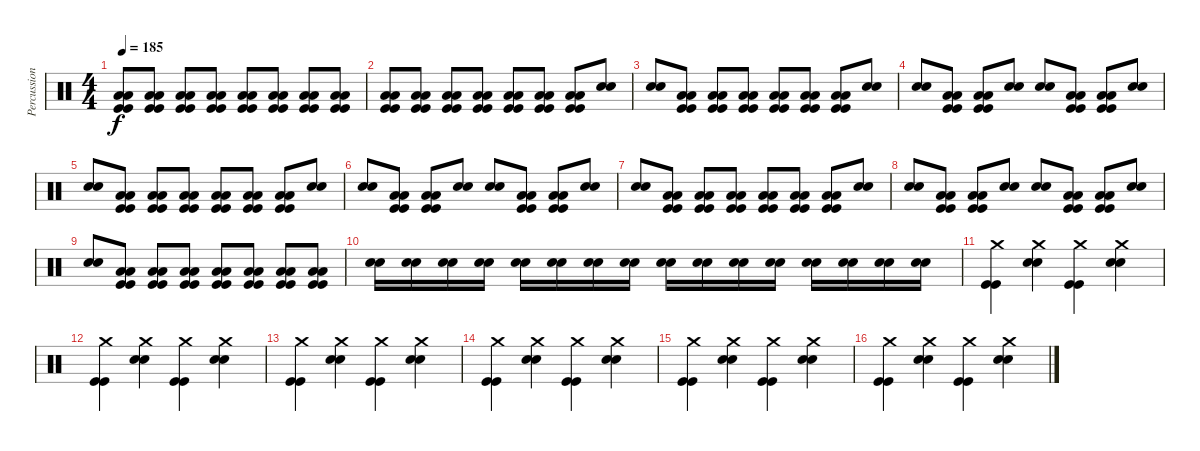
\track ("Percussion" "Percussion") {instrument percussion}
\staff {score}
\articulation defaults
\ts (4 4)
\tempo 185
\clef neutral
\ks c
("Kick (hit)" "Kick (hit)" "Low Floor Tom (hit)" "Low Floor Tom (hit)").8{dy f} ("Kick (hit)" "Kick (hit)" "Low Floor Tom (hit)" "Low Floor Tom (hit)").8 ("Kick (hit)" "Kick (hit)" "Low Floor Tom (hit)" "Low Floor Tom (hit)").8 ("Kick (hit)" "Kick (hit)" "Low Floor Tom (hit)" "Low Floor Tom (hit)").8 ("Kick (hit)" "Kick (hit)" "Low Floor Tom (hit)" "Low Floor Tom (hit)").8 ("Kick (hit)" "Kick (hit)" "Low Floor Tom (hit)" "Low Floor Tom (hit)").8 ("Kick (hit)" "Kick (hit)" "Low Floor Tom (hit)" "Low Floor Tom (hit)").8 ("Kick (hit)" "Kick (hit)" "Low Floor Tom (hit)" "Low Floor Tom (hit)").8 |
("Kick (hit)" "Kick (hit)" "Low Floor Tom (hit)" "Low Floor Tom (hit)").8 ("Kick (hit)" "Kick (hit)" "Low Floor Tom (hit)" "Low Floor Tom (hit)").8 ("Kick (hit)" "Kick (hit)" "Low Floor Tom (hit)" "Low Floor Tom (hit)").8 ("Kick (hit)" "Kick (hit)" "Low Floor Tom (hit)" "Low Floor Tom (hit)").8 ("Kick (hit)" "Kick (hit)" "Low Floor Tom (hit)" "Low Floor Tom (hit)").8 ("Kick (hit)" "Kick (hit)" "Low Floor Tom (hit)" "Low Floor Tom (hit)").8 ("Kick (hit)" "Kick (hit)" "Low Floor Tom (hit)" "Low Floor Tom (hit)").8 ("Snare (hit) 2" "Snare (hit) 2").8 |
("Snare (hit) 2" "Snare (hit) 2").8 ("Low Floor Tom (hit)" "Low Floor Tom (hit)" "Kick (hit)" "Kick (hit)").8 ("Low Floor Tom (hit)" "Low Floor Tom (hit)" "Kick (hit)" "Kick (hit)").8 ("Low Floor Tom (hit)" "Low Floor Tom (hit)" "Kick (hit)" "Kick (hit)").8 ("Low Floor Tom (hit)" "Low Floor Tom (hit)" "Kick (hit)" "Kick (hit)").8 ("Low Floor Tom (hit)" "Low Floor Tom (hit)" "Kick (hit)" "Kick (hit)").8 ("Low Floor Tom (hit)" "Low Floor Tom (hit)" "Kick (hit)" "Kick (hit)").8 ("Snare (hit) 2" "Snare (hit) 2").8 |
("Snare (hit) 2" "Snare (hit) 2").8 ("Low Floor Tom (hit)" "Low Floor Tom (hit)" "Kick (hit)" "Kick (hit)").8 ("Low Floor Tom (hit)" "Low Floor Tom (hit)" "Kick (hit)" "Kick (hit)").8 ("Snare (hit) 2" "Snare (hit) 2").8 ("Snare (hit) 2" "Snare (hit) 2").8 ("Low Floor Tom (hit)" "Low Floor Tom (hit)" "Kick (hit)" "Kick (hit)").8 ("Low Floor Tom (hit)" "Low Floor Tom (hit)" "Kick (hit)" "Kick (hit)").8 ("Snare (hit) 2" "Snare (hit) 2").8 |
("Snare (hit) 2" "Snare (hit) 2").8 ("Low Floor Tom (hit)" "Low Floor Tom (hit)" "Kick (hit)" "Kick (hit)").8 ("Low Floor Tom (hit)" "Low Floor Tom (hit)" "Kick (hit)" "Kick (hit)").8 ("Low Floor Tom (hit)" "Low Floor Tom (hit)" "Kick (hit)" "Kick (hit)").8 ("Low Floor Tom (hit)" "Low Floor Tom (hit)" "Kick (hit)" "Kick (hit)").8 ("Low Floor Tom (hit)" "Low Floor Tom (hit)" "Kick (hit)" "Kick (hit)").8 ("Low Floor Tom (hit)" "Low Floor Tom (hit)" "Kick (hit)" "Kick (hit)").8 ("Snare (hit) 2" "Snare (hit) 2").8 |
("Snare (hit) 2" "Snare (hit) 2").8 ("Low Floor Tom (hit)" "Low Floor Tom (hit)" "Kick (hit)" "Kick (hit)").8 ("Low Floor Tom (hit)" "Low Floor Tom (hit)" "Kick (hit)" "Kick (hit)").8 ("Snare (hit) 2" "Snare (hit) 2").8 ("Snare (hit) 2" "Snare (hit) 2").8 ("Low Floor Tom (hit)" "Low Floor Tom (hit)" "Kick (hit)" "Kick (hit)").8 ("Low Floor Tom (hit)" "Low Floor Tom (hit)" "Kick (hit)" "Kick (hit)").8 ("Snare (hit) 2" "Snare (hit) 2").8 |
("Snare (hit) 2" "Snare (hit) 2").8 ("Low Floor Tom (hit)" "Low Floor Tom (hit)" "Kick (hit)" "Kick (hit)").8 ("Low Floor Tom (hit)" "Low Floor Tom (hit)" "Kick (hit)" "Kick (hit)").8 ("Low Floor Tom (hit)" "Low Floor Tom (hit)" "Kick (hit)" "Kick (hit)").8 ("Low Floor Tom (hit)" "Low Floor Tom (hit)" "Kick (hit)" "Kick (hit)").8 ("Low Floor Tom (hit)" "Low Floor Tom (hit)" "Kick (hit)" "Kick (hit)").8 ("Low Floor Tom (hit)" "Low Floor Tom (hit)" "Kick (hit)" "Kick (hit)").8 ("Snare (hit) 2" "Snare (hit) 2").8 |
("Snare (hit) 2" "Snare (hit) 2").8 ("Low Floor Tom (hit)" "Low Floor Tom (hit)" "Kick (hit)" "Kick (hit)").8 ("Low Floor Tom (hit)" "Low Floor Tom (hit)" "Kick (hit)" "Kick (hit)").8 ("Snare (hit) 2" "Snare (hit) 2").8 ("Snare (hit) 2" "Snare (hit) 2").8 ("Low Floor Tom (hit)" "Low Floor Tom (hit)" "Kick (hit)" "Kick (hit)").8 ("Low Floor Tom (hit)" "Low Floor Tom (hit)" "Kick (hit)" "Kick (hit)").8 ("Snare (hit) 2" "Snare (hit) 2").8 |
("Snare (hit) 2" "Snare (hit) 2").8 ("Low Floor Tom (hit)" "Low Floor Tom (hit)" "Kick (hit)" "Kick (hit)").8 ("Low Floor Tom (hit)" "Low Floor Tom (hit)" "Kick (hit)" "Kick (hit)").8 ("Low Floor Tom (hit)" "Low Floor Tom (hit)" "Kick (hit)" "Kick (hit)").8 ("Low Floor Tom (hit)" "Low Floor Tom (hit)" "Kick (hit)" "Kick (hit)").8 ("Low Floor Tom (hit)" "Low Floor Tom (hit)" "Kick (hit)" "Kick (hit)").8 ("Low Floor Tom (hit)" "Low Floor Tom (hit)" "Kick (hit)" "Kick (hit)").8 ("Low Floor Tom (hit)" "Low Floor Tom (hit)" "Kick (hit)" "Kick (hit)").8 |
("Snare (hit) 2" "Snare (hit) 2").16 ("Snare (hit) 2" "Snare (hit) 2").16 ("Snare (hit) 2" "Snare (hit) 2").16 ("Snare (hit) 2" "Snare (hit) 2").16 ("Snare (hit) 2" "Snare (hit) 2").16 ("Snare (hit) 2" "Snare (hit) 2").16 ("Snare (hit) 2" "Snare (hit) 2").16 ("Snare (hit) 2" "Snare (hit) 2").16 ("Snare (hit) 2" "Snare (hit) 2").16 ("Snare (hit) 2" "Snare (hit) 2").16 ("Snare (hit) 2" "Snare (hit) 2").16 ("Snare (hit) 2" "Snare (hit) 2").16 ("Snare (hit) 2" "Snare (hit) 2").16 ("Snare (hit) 2" "Snare (hit) 2").16 ("Snare (hit) 2" "Snare (hit) 2").16 ("Snare (hit) 2" "Snare (hit) 2").16 |
("Kick (hit)" "Kick (hit)" "Crash medium (hit)").4 ("Crash medium (hit)" "Snare (hit) 2" "Snare (hit) 2").4 ("Kick (hit)" "Kick (hit)" "Crash medium (hit)").4 ("Crash medium (hit)" "Snare (hit) 2" "Snare (hit) 2").4 |
("Kick (hit)" "Kick (hit)" "Crash medium (hit)").4 ("Crash medium (hit)" "Snare (hit) 2" "Snare (hit) 2").4 ("Kick (hit)" "Kick (hit)" "Crash medium (hit)").4 ("Crash medium (hit)" "Snare (hit) 2" "Snare (hit) 2").4 |
("Kick (hit)" "Kick (hit)" "Crash medium (hit)").4 ("Crash medium (hit)" "Snare (hit) 2" "Snare (hit) 2").4 ("Kick (hit)" "Kick (hit)" "Crash medium (hit)").4 ("Crash medium (hit)" "Snare (hit) 2" "Snare (hit) 2").4 |
("Kick (hit)" "Kick (hit)" "Crash medium (hit)").4 ("Crash medium (hit)" "Snare (hit) 2" "Snare (hit) 2").4 ("Kick (hit)" "Kick (hit)" "Crash medium (hit)").4 ("Crash medium (hit)" "Snare (hit) 2" "Snare (hit) 2").4 |
("Kick (hit)" "Kick (hit)" "Crash medium (hit)").4 ("Crash medium (hit)" "Snare (hit) 2" "Snare (hit) 2").4 ("Kick (hit)" "Kick (hit)" "Crash medium (hit)").4 ("Crash medium (hit)" "Snare (hit) 2" "Snare (hit) 2").4 |
("Kick (hit)" "Kick (hit)" "Crash medium (hit)").4 ("Crash medium (hit)" "Snare (hit) 2" "Snare (hit) 2").4 ("Kick (hit)" "Kick (hit)" "Crash medium (hit)").4 ("Crash medium (hit)" "Snare (hit) 2" "Snare (hit) 2").4
